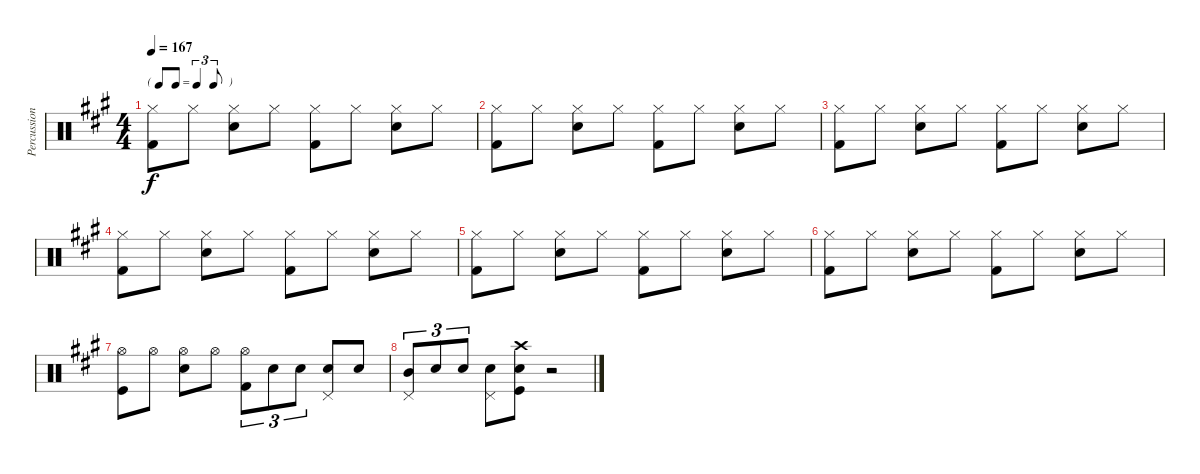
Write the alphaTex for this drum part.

\track ("Percussion" "Percussion") {instrument percussion}
\staff {score}
\articulation defaults
\ts (4 4)
\tf triplet8th
\tempo 167
\clef neutral
\ks a
("Hi-Hat (closed)" "Kick (hit) 2").8{dy f} "Hi-Hat (closed)".8 ("Hi-Hat (closed)" "Snare (hit) 2").8 "Hi-Hat (closed)".8 ("Hi-Hat (closed)" "Kick (hit) 2").8 "Hi-Hat (closed)".8 ("Hi-Hat (closed)" "Snare (hit) 2").8 "Hi-Hat (closed)".8 |
("Hi-Hat (closed)" "Kick (hit) 2").8 "Hi-Hat (closed)".8 ("Hi-Hat (closed)" "Snare (hit) 2").8 "Hi-Hat (closed)".8 ("Hi-Hat (closed)" "Kick (hit) 2").8 "Hi-Hat (closed)".8 ("Hi-Hat (closed)" "Snare (hit) 2").8 "Hi-Hat (closed)".8 |
("Hi-Hat (closed)" "Kick (hit) 2").8 "Hi-Hat (closed)".8 ("Hi-Hat (closed)" "Snare (hit) 2").8 "Hi-Hat (closed)".8 ("Hi-Hat (closed)" "Kick (hit) 2").8 "Hi-Hat (closed)".8 ("Hi-Hat (closed)" "Snare (hit) 2").8 "Hi-Hat (closed)".8 |
("Hi-Hat (closed)" "Kick (hit) 2").8 "Hi-Hat (closed)".8 ("Hi-Hat (closed)" "Snare (hit) 2").8 "Hi-Hat (closed)".8 ("Hi-Hat (closed)" "Kick (hit) 2").8 "Hi-Hat (closed)".8 ("Hi-Hat (closed)" "Snare (hit) 2").8 "Hi-Hat (closed)".8 |
("Hi-Hat (closed)" "Kick (hit) 2").8 "Hi-Hat (closed)".8 ("Hi-Hat (closed)" "Snare (hit) 2").8 "Hi-Hat (closed)".8 ("Hi-Hat (closed)" "Kick (hit) 2").8 "Hi-Hat (closed)".8 ("Hi-Hat (closed)" "Snare (hit) 2").8 "Hi-Hat (closed)".8 |
("Hi-Hat (closed)" "Kick (hit) 2").8 "Hi-Hat (closed)".8 ("Hi-Hat (closed)" "Snare (hit) 2").8 "Hi-Hat (closed)".8 ("Hi-Hat (closed)" "Kick (hit) 2").8 "Hi-Hat (closed)".8 ("Hi-Hat (closed)" "Snare (hit) 2").8 "Hi-Hat (closed)".8 |
("Hi-Hat (open)" "Kick (hit)").8 "Hi-Hat (open)".8 ("Hi-Hat (open)" "Snare (hit) 2").8 "Hi-Hat (open)".8 ("Hi-Hat (open)" "Kick (hit) 2").8{tu (3 2)} "Snare (hit) 2".8{tu (3 2)} "Snare (hit) 2".8{tu (3 2)} ("Pedal Hi-Hat (hit)" "Snare (hit) 2").8 "Snare (hit) 2".8 |
("Pedal Hi-Hat (hit)" "Mid Tom (hit)").8{tu (3 2)} "Snare (hit) 2".8{tu (3 2)} "Snare (hit) 2".8{tu (3 2)} ("Pedal Hi-Hat (hit)" "Snare (hit) 2").8 ("Crash high (hit)" "Snare (hit) 2" "Kick (hit)").8 r.2
